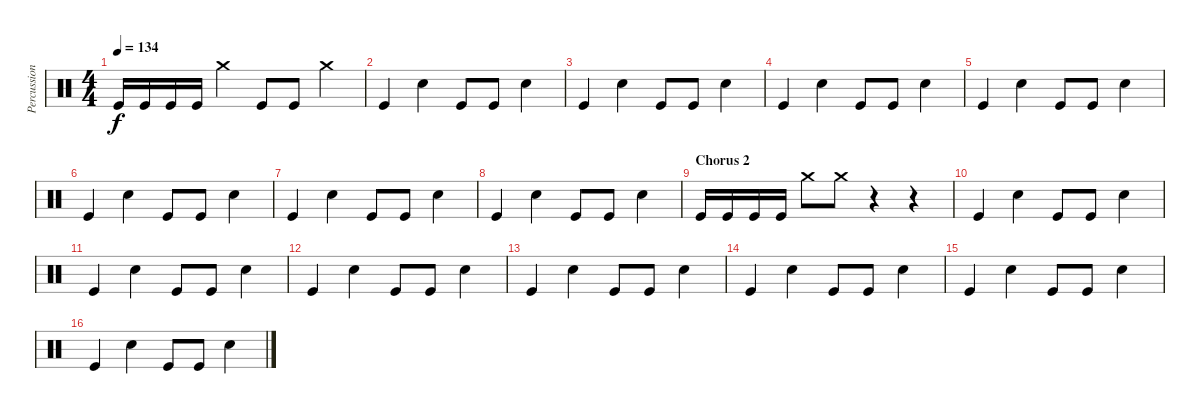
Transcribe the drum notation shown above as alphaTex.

\track ("Percussion" "Percussion") {instrument percussion}
\staff {score}
\articulation defaults
\ts (4 4)
\tempo 134
\clef neutral
\ks c "Kick (hit)".16{dy f} "Kick (hit)".16 "Kick (hit)".16 "Kick (hit)".16 "Crash medium (hit)".4 "Kick (hit)".8 "Kick (hit)".8 "Crash medium (hit)".4
|
"Kick (hit)".4 "Snare (hit) 2".4 "Kick (hit)".8 "Kick (hit)".8 "Snare (hit) 2".4 |
"Kick (hit)".4 "Snare (hit) 2".4 "Kick (hit)".8 "Kick (hit)".8 "Snare (hit) 2".4 |
"Kick (hit)".4 "Snare (hit) 2".4 "Kick (hit)".8 "Kick (hit)".8 "Snare (hit) 2".4 |
"Kick (hit)".4 "Snare (hit) 2".4 "Kick (hit)".8 "Kick (hit)".8 "Snare (hit) 2".4 |
"Kick (hit)".4 "Snare (hit) 2".4 "Kick (hit)".8 "Kick (hit)".8 "Snare (hit) 2".4 |
"Kick (hit)".4 "Snare (hit) 2".4 "Kick (hit)".8 "Kick (hit)".8 "Snare (hit) 2".4 |
"Kick (hit)".4 "Snare (hit) 2".4 "Kick (hit)".8 "Kick (hit)".8 "Snare (hit) 2".4 |
\section ("" "Chorus 2")
"Kick (hit)".16 "Kick (hit)".16 "Kick (hit)".16 "Kick (hit)".16 "Crash medium (hit)".8 "Crash medium (hit)".8 r.4 r.4 |
"Kick (hit)".4 "Snare (hit) 2".4 "Kick (hit)".8 "Kick (hit)".8 "Snare (hit) 2".4 |
"Kick (hit)".4 "Snare (hit) 2".4 "Kick (hit)".8 "Kick (hit)".8 "Snare (hit) 2".4 |
"Kick (hit)".4 "Snare (hit) 2".4 "Kick (hit)".8 "Kick (hit)".8 "Snare (hit) 2".4 |
"Kick (hit)".4 "Snare (hit) 2".4 "Kick (hit)".8 "Kick (hit)".8 "Snare (hit) 2".4 |
"Kick (hit)".4 "Snare (hit) 2".4 "Kick (hit)".8 "Kick (hit)".8 "Snare (hit) 2".4 |
"Kick (hit)".4 "Snare (hit) 2".4 "Kick (hit)".8 "Kick (hit)".8 "Snare (hit) 2".4 |
"Kick (hit)".4 "Snare (hit) 2".4 "Kick (hit)".8 "Kick (hit)".8 "Snare (hit) 2".4
